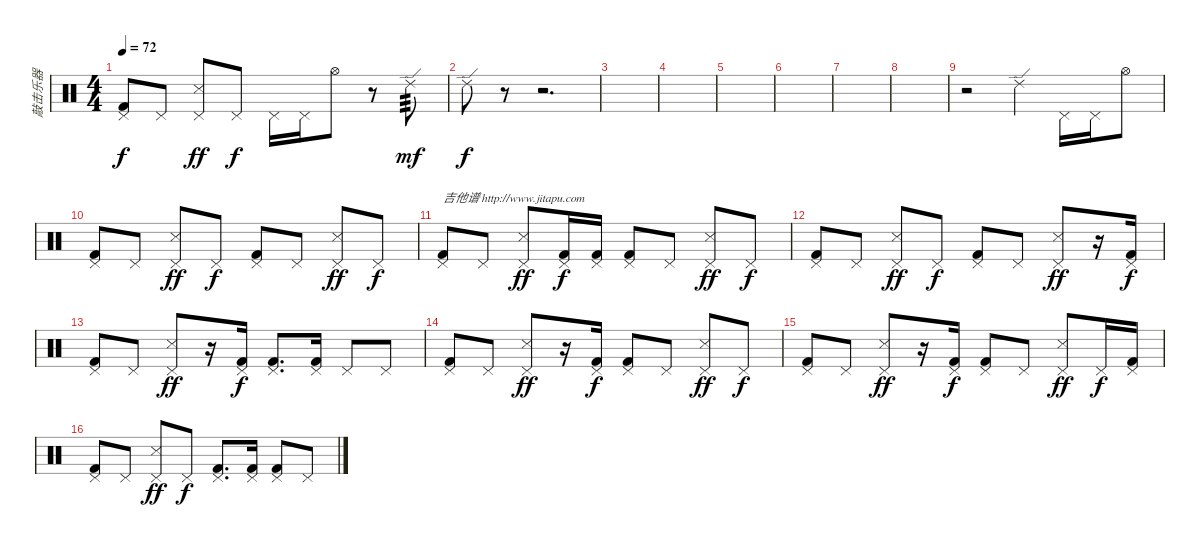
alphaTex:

\track ("敲击乐器" "敲击乐器") {instrument percussion}
\staff {score}
\articulation defaults
\ts (4 4)
\tempo 72
\clef neutral
\ks c
("Pedal Hi-Hat (hit)" "Kick (hit) 2").8{dy f} "Pedal Hi-Hat (hit)".8 ("Pedal Hi-Hat (hit)" "Snare (side stick) 3").8{dy ff} "Pedal Hi-Hat (hit)".8{dy f} "Pedal Hi-Hat (hit)".16 "Pedal Hi-Hat (hit)".16 "Hi-Hat (open)".8 r.8 "Ride (edge) 2".8{tp 3 dy mf} |
"Ride (edge) 2".8{dy f} r.8 r.2{d} |
|
|
|
|
|
|
r.2 "Ride (edge) 2".4 "Pedal Hi-Hat (hit)".16 "Pedal Hi-Hat (hit)".16 "Hi-Hat (open)".8 |
("Pedal Hi-Hat (hit)" "Kick (hit) 2").8 "Pedal Hi-Hat (hit)".8 ("Pedal Hi-Hat (hit)" "Snare (side stick) 3").8{dy ff} "Pedal Hi-Hat (hit)".8{dy f} ("Pedal Hi-Hat (hit)" "Kick (hit) 2").8 "Pedal Hi-Hat (hit)".8 ("Pedal Hi-Hat (hit)" "Snare (side stick) 3").8{dy ff} "Pedal Hi-Hat (hit)".8{dy f} |
("Pedal Hi-Hat (hit)" "Kick (hit) 2").8{txt "吉他谱 http://www.jitapu.com"} "Pedal Hi-Hat (hit)".8 ("Pedal Hi-Hat (hit)" "Snare (side stick) 3").8{dy ff} ("Pedal Hi-Hat (hit)" "Kick (hit) 2").16{dy f} ("Pedal Hi-Hat (hit)" "Kick (hit) 2").16 ("Pedal Hi-Hat (hit)" "Kick (hit) 2").8 "Pedal Hi-Hat (hit)".8 ("Pedal Hi-Hat (hit)" "Snare (side stick) 3").8{dy ff} "Pedal Hi-Hat (hit)".8{dy f} |
("Pedal Hi-Hat (hit)" "Kick (hit) 2").8 "Pedal Hi-Hat (hit)".8 ("Pedal Hi-Hat (hit)" "Snare (side stick) 3").8{dy ff} "Pedal Hi-Hat (hit)".8{dy f} ("Pedal Hi-Hat (hit)" "Kick (hit) 2").8 "Pedal Hi-Hat (hit)".8 ("Pedal Hi-Hat (hit)" "Snare (side stick) 3").8{dy ff} r.16 ("Pedal Hi-Hat (hit)" "Kick (hit) 2").16{dy f} |
("Pedal Hi-Hat (hit)" "Kick (hit) 2").8 "Pedal Hi-Hat (hit)".8 ("Pedal Hi-Hat (hit)" "Snare (side stick) 3").8{dy ff} r.16 ("Pedal Hi-Hat (hit)" "Kick (hit) 2").16{dy f} ("Pedal Hi-Hat (hit)" "Kick (hit) 2").8{d} ("Pedal Hi-Hat (hit)" "Kick (hit) 2").16 "Pedal Hi-Hat (hit)".8 "Pedal Hi-Hat (hit)".8 |
("Pedal Hi-Hat (hit)" "Kick (hit) 2").8 "Pedal Hi-Hat (hit)".8 ("Pedal Hi-Hat (hit)" "Snare (side stick) 3").8{dy ff} r.16 ("Pedal Hi-Hat (hit)" "Kick (hit) 2").16{dy f} ("Pedal Hi-Hat (hit)" "Kick (hit) 2").8 "Pedal Hi-Hat (hit)".8 ("Pedal Hi-Hat (hit)" "Snare (side stick) 3").8{dy ff} "Pedal Hi-Hat (hit)".8{dy f} |
("Pedal Hi-Hat (hit)" "Kick (hit) 2").8 "Pedal Hi-Hat (hit)".8 ("Pedal Hi-Hat (hit)" "Snare (side stick) 3").8{dy ff} r.16 ("Pedal Hi-Hat (hit)" "Kick (hit) 2").16{dy f} ("Pedal Hi-Hat (hit)" "Kick (hit) 2").8 "Pedal Hi-Hat (hit)".8 ("Pedal Hi-Hat (hit)" "Snare (side stick) 3").8{dy ff} "Pedal Hi-Hat (hit)".16{dy f} ("Pedal Hi-Hat (hit)" "Kick (hit) 2").16 |
("Pedal Hi-Hat (hit)" "Kick (hit) 2").8 "Pedal Hi-Hat (hit)".8 ("Pedal Hi-Hat (hit)" "Snare (side stick) 3").8{dy ff} "Pedal Hi-Hat (hit)".8{dy f} ("Pedal Hi-Hat (hit)" "Kick (hit) 2").8{d} ("Pedal Hi-Hat (hit)" "Kick (hit) 2").16 ("Pedal Hi-Hat (hit)" "Kick (hit) 2").8 "Pedal Hi-Hat (hit)".8
